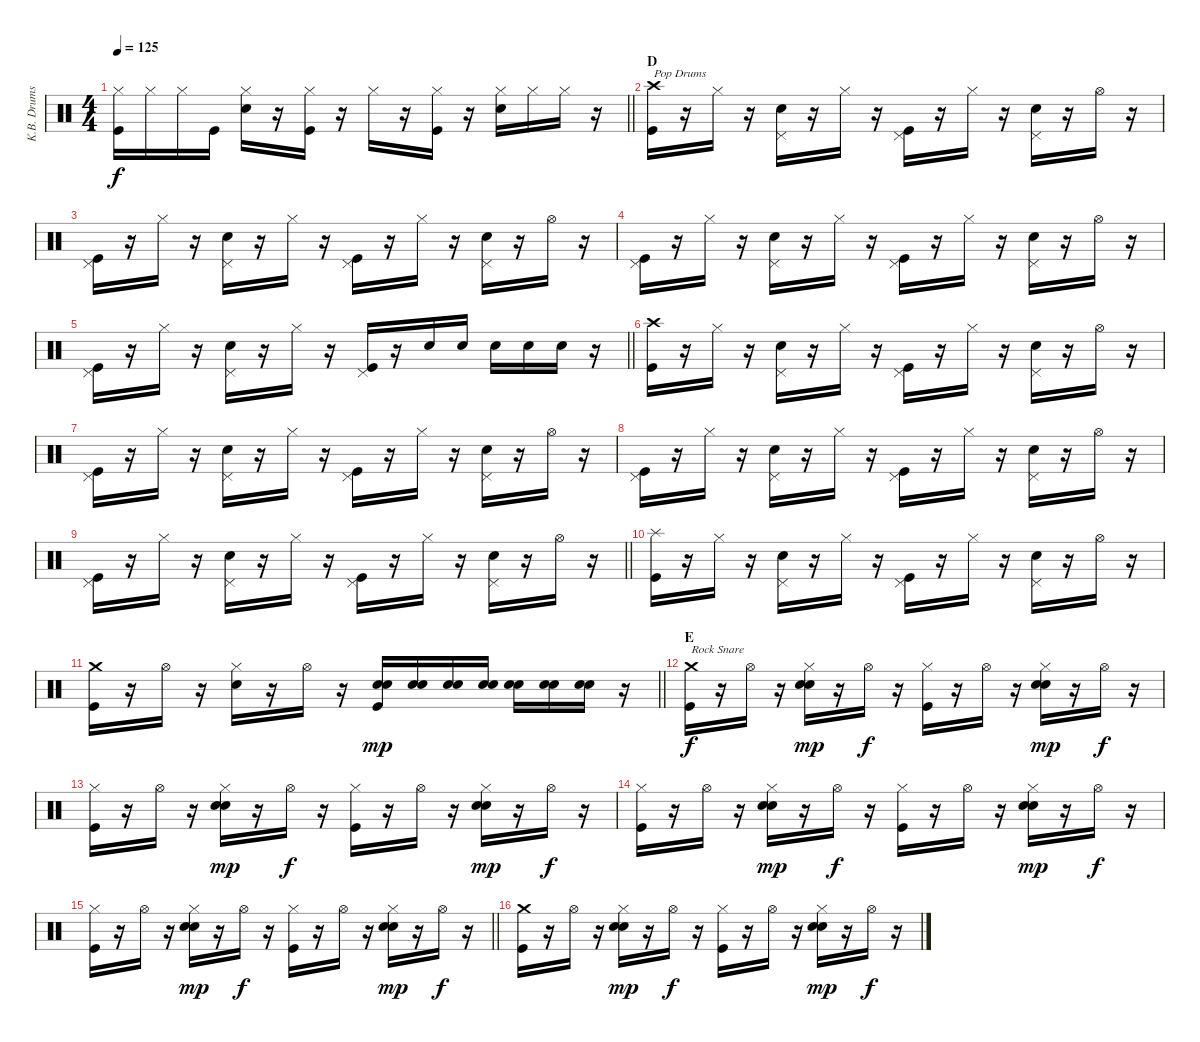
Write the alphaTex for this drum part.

\track ("K.B. Drums" "K.B. Drums") {instrument percussion}
\staff {score}
\articulation defaults
\ts (4 4)
\tempo 125
\clef neutral
\barLineRight lightlight
\ks c
("Hi-Hat (closed)" "Kick (hit)").16{dy f} "Hi-Hat (closed)".16 "Hi-Hat (closed)".16 "Kick (hit)".16 ("Hi-Hat (closed)" "Electric Snare (hit)").16 r.16 ("Hi-Hat (closed)" "Kick (hit)").16 r.16 "Hi-Hat (closed)".16 r.16 ("Hi-Hat (closed)" "Kick (hit)").16 r.16 ("Hi-Hat (closed)" "Electric Snare (hit)").16 "Hi-Hat (closed)".16 "Hi-Hat (closed)".16 r.16 |
\section ("" "D")
("Crash high (hit)" "Kick (hit)").16{txt "Pop Drums"} r.16 "Hi-Hat (closed)".16 r.16 ("Pedal Hi-Hat (hit)" "Electric Snare (hit)").16 r.16 "Hi-Hat (closed)".16 r.16 ("Pedal Hi-Hat (hit)" "Kick (hit)").16 r.16 "Hi-Hat (closed)".16 r.16 ("Pedal Hi-Hat (hit)" "Electric Snare (hit)").16 r.16 "Hi-Hat (open)".16 r.16 |
("Pedal Hi-Hat (hit)" "Kick (hit)").16 r.16 "Hi-Hat (closed)".16 r.16 ("Pedal Hi-Hat (hit)" "Electric Snare (hit)").16 r.16 "Hi-Hat (closed)".16 r.16 ("Pedal Hi-Hat (hit)" "Kick (hit)").16 r.16 "Hi-Hat (closed)".16 r.16 ("Pedal Hi-Hat (hit)" "Electric Snare (hit)").16 r.16 "Hi-Hat (open)".16 r.16 |
("Pedal Hi-Hat (hit)" "Kick (hit)").16 r.16 "Hi-Hat (closed)".16 r.16 ("Pedal Hi-Hat (hit)" "Electric Snare (hit)").16 r.16 "Hi-Hat (closed)".16 r.16 ("Pedal Hi-Hat (hit)" "Kick (hit)").16 r.16 "Hi-Hat (closed)".16 r.16 ("Pedal Hi-Hat (hit)" "Electric Snare (hit)").16 r.16 "Hi-Hat (open)".16 r.16 |
\barLineRight lightlight
("Pedal Hi-Hat (hit)" "Kick (hit)").16 r.16 "Hi-Hat (closed)".16 r.16 ("Pedal Hi-Hat (hit)" "Electric Snare (hit)").16 r.16 "Hi-Hat (closed)".16 r.16 ("Pedal Hi-Hat (hit)" "Kick (hit)").16 r.16 "Electric Snare (hit)".16 "Electric Snare (hit)".16 "Electric Snare (hit)".16 "Electric Snare (hit)".16 "Electric Snare (hit)".16 r.16 |
("Crash high (hit)" "Kick (hit)").16 r.16 "Hi-Hat (closed)".16 r.16 ("Pedal Hi-Hat (hit)" "Electric Snare (hit)").16 r.16 "Hi-Hat (closed)".16 r.16 ("Pedal Hi-Hat (hit)" "Kick (hit)").16 r.16 "Hi-Hat (closed)".16 r.16 ("Pedal Hi-Hat (hit)" "Electric Snare (hit)").16 r.16 "Hi-Hat (open)".16 r.16 |
("Pedal Hi-Hat (hit)" "Kick (hit)").16 r.16 "Hi-Hat (closed)".16 r.16 ("Pedal Hi-Hat (hit)" "Electric Snare (hit)").16 r.16 "Hi-Hat (closed)".16 r.16 ("Pedal Hi-Hat (hit)" "Kick (hit)").16 r.16 "Hi-Hat (closed)".16 r.16 ("Pedal Hi-Hat (hit)" "Electric Snare (hit)").16 r.16 "Hi-Hat (open)".16 r.16 |
("Pedal Hi-Hat (hit)" "Kick (hit)").16 r.16 "Hi-Hat (closed)".16 r.16 ("Pedal Hi-Hat (hit)" "Electric Snare (hit)").16 r.16 "Hi-Hat (closed)".16 r.16 ("Pedal Hi-Hat (hit)" "Kick (hit)").16 r.16 "Hi-Hat (closed)".16 r.16 ("Pedal Hi-Hat (hit)" "Electric Snare (hit)").16 r.16 "Hi-Hat (open)".16 r.16 |
\barLineRight lightlight
("Pedal Hi-Hat (hit)" "Kick (hit)").16 r.16 "Hi-Hat (closed)".16 r.16 ("Pedal Hi-Hat (hit)" "Electric Snare (hit)").16 r.16 "Hi-Hat (closed)".16 r.16 ("Pedal Hi-Hat (hit)" "Kick (hit)").16 r.16 "Hi-Hat (closed)".16 r.16 ("Pedal Hi-Hat (hit)" "Electric Snare (hit)").16 r.16 "Hi-Hat (open)".16 r.16 |
("Splash (hit)" "Kick (hit)").16 r.16 "Hi-Hat (closed)".16 r.16 ("Pedal Hi-Hat (hit)" "Electric Snare (hit)").16 r.16 "Hi-Hat (closed)".16 r.16 ("Pedal Hi-Hat (hit)" "Kick (hit)").16 r.16 "Hi-Hat (closed)".16 r.16 ("Pedal Hi-Hat (hit)" "Electric Snare (hit)").16 r.16 "Hi-Hat (open)".16 r.16 |
\barLineRight lightlight
("Crash medium (hit)" "Kick (hit)").16 r.16 "Hi-Hat (open)".16 r.16 ("Hi-Hat (closed)" "Electric Snare (hit)").16 r.16 "Hi-Hat (open)".16 r.16 ("Snare (hit) 2" "Electric Snare (hit)" "Kick (hit)").16{dy mp} ("Snare (hit) 2" "Electric Snare (hit)").16 ("Snare (hit) 2" "Electric Snare (hit)").16 ("Snare (hit) 2" "Electric Snare (hit)").16 ("Snare (hit) 2" "Electric Snare (hit)").16 ("Snare (hit) 2" "Electric Snare (hit)").16 ("Snare (hit) 2" "Electric Snare (hit)").16 r.16 |
\section ("" "E")
("Crash medium (hit)" "Kick (hit)").16{txt "Rock Snare" dy f} r.16 "Hi-Hat (open)".16 r.16 ("Hi-Hat (closed)" "Snare (hit) 2" "Electric Snare (hit)").16{dy mp} r.16 "Hi-Hat (open)".16{dy f} r.16 ("Hi-Hat (closed)" "Kick (hit)").16 r.16 "Hi-Hat (open)".16 r.16 ("Hi-Hat (closed)" "Snare (hit) 2" "Electric Snare (hit)").16{dy mp} r.16 "Hi-Hat (open)".16{dy f} r.16 |
("Hi-Hat (closed)" "Kick (hit)").16 r.16 "Hi-Hat (open)".16 r.16 ("Hi-Hat (closed)" "Snare (hit) 2" "Electric Snare (hit)").16{dy mp} r.16 "Hi-Hat (open)".16{dy f} r.16 ("Hi-Hat (closed)" "Kick (hit)").16 r.16 "Hi-Hat (open)".16 r.16 ("Hi-Hat (closed)" "Snare (hit) 2" "Electric Snare (hit)").16{dy mp} r.16 "Hi-Hat (open)".16{dy f} r.16 |
("Hi-Hat (closed)" "Kick (hit)").16 r.16 "Hi-Hat (open)".16 r.16 ("Hi-Hat (closed)" "Snare (hit) 2" "Electric Snare (hit)").16{dy mp} r.16 "Hi-Hat (open)".16{dy f} r.16 ("Hi-Hat (closed)" "Kick (hit)").16 r.16 "Hi-Hat (open)".16 r.16 ("Hi-Hat (closed)" "Snare (hit) 2" "Electric Snare (hit)").16{dy mp} r.16 "Hi-Hat (open)".16{dy f} r.16 |
\barLineRight lightlight
("Hi-Hat (closed)" "Kick (hit)").16 r.16 "Hi-Hat (open)".16 r.16 ("Hi-Hat (closed)" "Snare (hit) 2" "Electric Snare (hit)").16{dy mp} r.16 "Hi-Hat (open)".16{dy f} r.16 ("Hi-Hat (closed)" "Kick (hit)").16 r.16 "Hi-Hat (open)".16 r.16 ("Hi-Hat (closed)" "Snare (hit) 2" "Electric Snare (hit)").16{dy mp} r.16 "Hi-Hat (open)".16{dy f} r.16 |
("Crash medium (hit)" "Kick (hit)").16 r.16 "Hi-Hat (open)".16 r.16 ("Hi-Hat (closed)" "Snare (hit) 2" "Electric Snare (hit)").16{dy mp} r.16 "Hi-Hat (open)".16{dy f} r.16 ("Hi-Hat (closed)" "Kick (hit)").16 r.16 "Hi-Hat (open)".16 r.16 ("Hi-Hat (closed)" "Snare (hit) 2" "Electric Snare (hit)").16{dy mp} r.16 "Hi-Hat (open)".16{dy f} r.16
